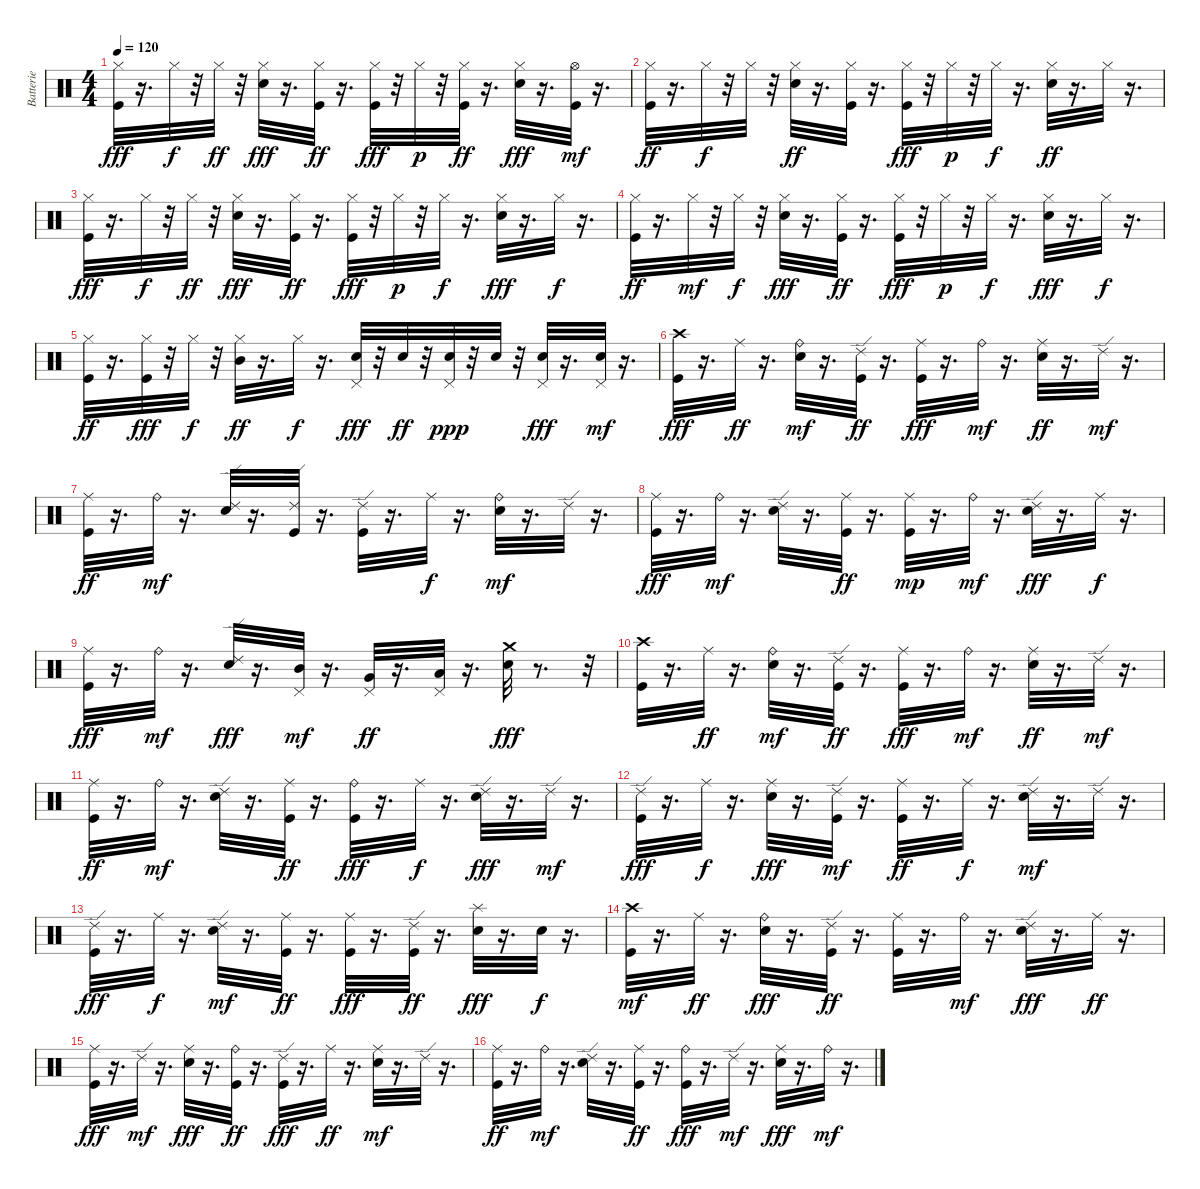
\track ("Batterie" "Batterie") {instrument percussion}
\staff {score}
\articulation defaults
\ts (4 4)
\tempo 120
\clef neutral
\ks c
("Hi-Hat (closed)" "Kick (hit)").32{dy fff} r.16{d} "Hi-Hat (closed)".32{dy f} r.32 "Hi-Hat (closed)".32{dy ff} r.32 ("Hi-Hat (closed)" "Electric Snare (hit)").32{dy fff} r.16{d} ("Kick (hit)" "Hi-Hat (closed)").32{dy ff} r.16{d} ("Hi-Hat (closed)" "Kick (hit)").32{dy fff} r.32 "Hi-Hat (closed)".32{dy p} r.32 ("Kick (hit)" "Hi-Hat (closed)").32{dy ff} r.16{d} ("Electric Snare (hit)" "Hi-Hat (closed)").32{dy fff} r.16{d} ("Kick (hit)" "Hi-Hat (open)").32{dy mf} r.16{d} |
("Kick (hit)" "Hi-Hat (closed)").32{dy ff} r.16{d} "Hi-Hat (closed)".32{dy f} r.32 "Hi-Hat (closed)".32 r.32 ("Electric Snare (hit)" "Hi-Hat (closed)").32{dy ff} r.16{d} ("Hi-Hat (closed)" "Kick (hit)").32 r.16{d} ("Hi-Hat (closed)" "Kick (hit)").32{dy fff} r.32 "Hi-Hat (closed)".32{dy p} r.32 "Hi-Hat (closed)".32{dy f} r.16{d} ("Electric Snare (hit)" "Hi-Hat (closed)").32{dy ff} r.16{d} "Hi-Hat (closed)".32 r.16{d} |
("Hi-Hat (closed)" "Kick (hit)").32{dy fff} r.16{d} "Hi-Hat (closed)".32{dy f} r.32 "Hi-Hat (closed)".32{dy ff} r.32 ("Hi-Hat (closed)" "Electric Snare (hit)").32{dy fff} r.16{d} ("Hi-Hat (closed)" "Kick (hit)").32{dy ff} r.16{d} ("Hi-Hat (closed)" "Kick (hit)").32{dy fff} r.32 "Hi-Hat (closed)".32{dy p} r.32 "Hi-Hat (closed)".32{dy f} r.16{d} ("Hi-Hat (closed)" "Electric Snare (hit)").32{dy fff} r.16{d} "Hi-Hat (closed)".32{dy f} r.16{d} |
("Kick (hit)" "Hi-Hat (closed)").32{dy ff} r.16{d} "Hi-Hat (closed)".32{dy mf} r.32 "Hi-Hat (closed)".32{dy f} r.32 ("Hi-Hat (closed)" "Electric Snare (hit)").32{dy fff} r.16{d} ("Kick (hit)" "Hi-Hat (closed)").32{dy ff} r.16{d} ("Kick (hit)" "Hi-Hat (closed)").32{dy fff} r.32 "Hi-Hat (closed)".32{dy p} r.32 "Hi-Hat (closed)".32{dy f} r.16{d} ("Electric Snare (hit)" "Hi-Hat (closed)").32{dy fff} r.16{d} "Hi-Hat (closed)".32{dy f} r.16{d} |
("Kick (hit)" "Hi-Hat (closed)").32{dy ff} r.16{d} ("Hi-Hat (closed)" "Kick (hit)").32{dy fff} r.32 "Hi-Hat (closed)".32{dy f} r.32 ("Hi-Hat (closed)" "Mid Tom (hit)").32{dy ff} r.16{d} "Hi-Hat (closed)".32{dy f} r.16{d} ("Pedal Hi-Hat (hit)" "Electric Snare (hit)").32{dy fff} r.32 "Electric Snare (hit)".32{dy ff} r.32 ("Pedal Hi-Hat (hit)" "Electric Snare (hit)").32{dy ppp} r.32 "Electric Snare (hit)".32 r.32 ("Pedal Hi-Hat (hit)" "Electric Snare (hit)").32{dy fff} r.16{d} ("Electric Snare (hit)" "Pedal Hi-Hat (hit)").32{dy mf} r.16{d} |
("Crash high (hit)" "Kick (hit)").32{dy fff} r.16{d} "Ride (middle)".32{dy ff} r.16{d} ("Electric Snare (hit)" "Ride (bell)").32{dy mf} r.16{d} ("Ride (edge) 2" "Kick (hit)").32{dy ff} r.16{d} ("Ride (middle)" "Kick (hit)").32{dy fff} r.16{d} "Ride (bell)".32{dy mf} r.16{d} ("Electric Snare (hit)" "Ride (middle)").32{dy ff} r.16{d} "Ride (edge) 2".32{dy mf} r.16{d} |
("Kick (hit)" "Ride (middle)").32{dy ff} r.16{d} "Ride (bell)".32{dy mf} r.16{d} ("Electric Snare (hit)" "Ride (edge) 2").32 r.16{d} ("Kick (hit)" "Ride (edge) 2").32 r.16{d} ("Kick (hit)" "Ride (edge) 2").32 r.16{d} "Ride (middle)".32{dy f} r.16{d} ("Electric Snare (hit)" "Ride (bell)").32{dy mf} r.16{d} "Ride (edge) 2".32 r.16{d} |
("Ride (middle)" "Kick (hit)").32{dy fff} r.16{d} "Ride (bell)".32{dy mf} r.16{d} ("Electric Snare (hit)" "Ride (edge) 2").32 r.16{d} ("Ride (middle)" "Kick (hit)").32{dy ff} r.16{d} ("Kick (hit)" "Ride (middle)").32{dy mp} r.16{d} "Ride (bell)".32{dy mf} r.16{d} ("Ride (edge) 2" "Electric Snare (hit)").32{dy fff} r.16{d} "Ride (middle)".32{dy f} r.16{d} |
("Ride (middle)" "Kick (hit)").32{dy fff} r.16{d} "Ride (bell)".32{dy mf} r.16{d} ("Electric Snare (hit)" "Ride (edge) 2").32{dy fff} r.16{d} ("Pedal Hi-Hat (hit)" "Mid Tom (hit)").32{dy mf} r.16{d} ("Very Low Tom (hit)" "Pedal Hi-Hat (hit)").32{dy ff} r.16{d} ("Pedal Hi-Hat (hit)" "Low Floor Tom (hit)").32 r.16{d} ("Crash medium (hit)" "Electric Snare (hit)").32{dy fff} r.8{d} r.32 |
("Crash high (hit)" "Kick (hit)").32 r.16{d} "Ride (middle)".32{dy ff} r.16{d} ("Electric Snare (hit)" "Ride (bell)").32{dy mf} r.16{d} ("Ride (edge) 2" "Kick (hit)").32{dy ff} r.16{d} ("Ride (middle)" "Kick (hit)").32{dy fff} r.16{d} "Ride (bell)".32{dy mf} r.16{d} ("Electric Snare (hit)" "Ride (middle)").32{dy ff} r.16{d} "Ride (edge) 2".32{dy mf} r.16{d} |
("Kick (hit)" "Ride (middle)").32{dy ff} r.16{d} "Ride (bell)".32{dy mf} r.16{d} ("Electric Snare (hit)" "Ride (edge) 2").32 r.16{d} ("Kick (hit)" "Ride (middle)").32{dy ff} r.16{d} ("Ride (bell)" "Kick (hit)").32{dy fff} r.16{d} "Ride (middle)".32{dy f} r.16{d} ("Ride (edge) 2" "Electric Snare (hit)").32{dy fff} r.16{d} "Ride (edge) 2".32{dy mf} r.16{d} |
("Ride (edge) 2" "Kick (hit)").32{dy fff} r.16{d} "Ride (middle)".32{dy f} r.16{d} ("Ride (middle)" "Electric Snare (hit)").32{dy fff} r.16{d} ("Kick (hit)" "Ride (edge) 2").32{dy mf} r.16{d} ("Kick (hit)" "Ride (middle)").32{dy ff} r.16{d} "Ride (middle)".32{dy f} r.16{d} ("Electric Snare (hit)" "Ride (edge) 2").32{dy mf} r.16{d} "Ride (edge) 2".32 r.16{d} |
("Ride (edge) 2" "Kick (hit)").32{dy fff} r.16{d} "Ride (middle)".32{dy f} r.16{d} ("Electric Snare (hit)" "Ride (edge) 2").32{dy mf} r.16{d} ("Kick (hit)" "Ride (middle)").32{dy ff} r.16{d} ("Kick (hit)" "Ride (middle)").32{dy fff} r.16{d} ("Ride (edge) 2" "Kick (hit)").32{dy ff} r.16{d} ("Splash (hit)" "Electric Snare (hit)").32{dy fff} r.16{d} "Electric Snare (hit)".32{dy f} r.16{d} |
("Kick (hit)" "Crash high (hit)").32{dy mf} r.16{d} "Ride (middle)".32{dy ff} r.16{d} ("Ride (bell)" "Electric Snare (hit)").32{dy fff} r.16{d} ("Ride (edge) 2" "Kick (hit)").32{dy ff} r.16{d} ("Kick (hit)" "Ride (middle)").32 r.16{d} "Ride (bell)".32{dy mf} r.16{d} ("Ride (edge) 2" "Electric Snare (hit)").32{dy fff} r.16{d} "Ride (middle)".32{dy ff} r.16{d} |
("Ride (middle)" "Kick (hit)").32{dy fff} r.16{d} "Ride (edge) 2".32{dy mf} r.16{d} ("Ride (middle)" "Electric Snare (hit)").32{dy fff} r.16{d} ("Ride (bell)" "Kick (hit)").32{dy ff} r.16{d} ("Ride (edge) 2" "Kick (hit)").32{dy fff} r.16{d} "Ride (middle)".32{dy ff} r.16{d} ("Electric Snare (hit)" "Ride (middle)").32{dy mf} r.16{d} "Ride (edge) 2".32 r.16{d} |
("Kick (hit)" "Ride (middle)").32{dy ff} r.16{d} "Ride (bell)".32{dy mf} r.16{d} ("Electric Snare (hit)" "Ride (edge) 2").32 r.16{d} ("Ride (middle)" "Kick (hit)").32{dy ff} r.16{d} ("Ride (bell)" "Kick (hit)").32{dy fff} r.16{d} "Ride (edge) 2".32{dy mf} r.16{d} ("Ride (middle)" "Electric Snare (hit)").32{dy fff} r.16{d} "Ride (bell)".32{dy mf} r.16{d}
